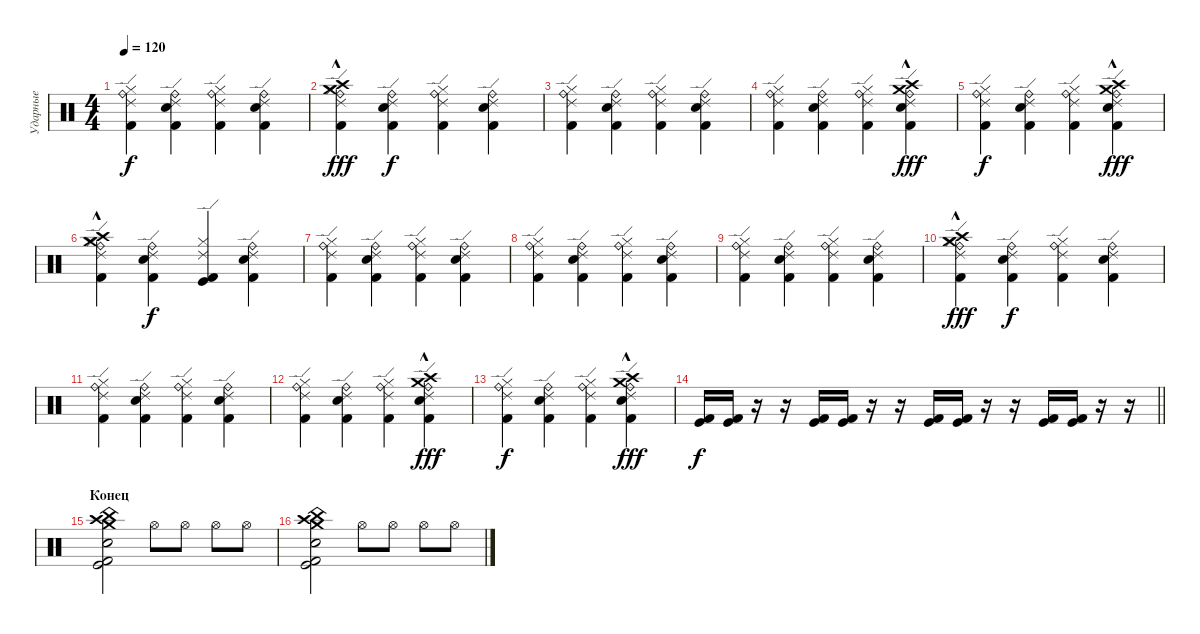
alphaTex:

\track ("Ударные" "Ударные") {instrument percussion}
\staff {score}
\articulation defaults
\ts (4 4)
\tempo 120
\clef neutral
\ks c
("Ride (bell)" "Ride (edge) 2" "Hi-Hat (closed)" "Kick (hit) 2").4{dy f} ("Ride (bell)" "Ride (edge) 2" "Snare (hit) 2" "Kick (hit) 2").4 ("Ride (bell)" "Ride (edge) 2" "Hi-Hat (closed)" "Kick (hit) 2").4 ("Ride (bell)" "Ride (edge) 2" "Snare (hit) 2" "Kick (hit) 2").4 |
("Ride (bell)" "Ride (edge) 2" "Crash high (hit)"{hac} "Crash medium (hit)"{hac} "Hi-Hat (closed)" "Kick (hit) 2").4{dy fff} ("Ride (bell)" "Ride (edge) 2" "Snare (hit) 2" "Kick (hit) 2").4{dy f} ("Ride (bell)" "Ride (edge) 2" "Hi-Hat (closed)" "Kick (hit) 2").4 ("Ride (bell)" "Ride (edge) 2" "Snare (hit) 2" "Kick (hit) 2").4 |
("Ride (bell)" "Ride (edge) 2" "Hi-Hat (closed)" "Kick (hit) 2").4 ("Ride (bell)" "Ride (edge) 2" "Snare (hit) 2" "Kick (hit) 2").4 ("Ride (bell)" "Ride (edge) 2" "Hi-Hat (closed)" "Kick (hit) 2").4 ("Ride (bell)" "Ride (edge) 2" "Snare (hit) 2" "Kick (hit) 2").4 |
("Ride (bell)" "Ride (edge) 2" "Hi-Hat (closed)" "Kick (hit) 2").4 ("Ride (bell)" "Ride (edge) 2" "Snare (hit) 2" "Kick (hit) 2").4 ("Ride (bell)" "Ride (edge) 2" "Hi-Hat (closed)" "Kick (hit) 2").4 ("Ride (bell)" "Ride (edge) 2" "Crash high (hit)"{hac} "Crash medium (hit)"{hac} "Snare (hit) 2" "Kick (hit) 2").4{dy fff} |
("Ride (bell)" "Ride (edge) 2" "Hi-Hat (closed)" "Kick (hit) 2").4{dy f} ("Ride (bell)" "Ride (edge) 2" "Snare (hit) 2" "Kick (hit) 2").4 ("Ride (bell)" "Ride (edge) 2" "Hi-Hat (closed)" "Kick (hit) 2").4 ("Ride (bell)" "Ride (edge) 2" "Crash high (hit)"{hac} "Crash medium (hit)"{hac} "Snare (hit) 2" "Kick (hit) 2").4{dy fff} |
("Ride (bell)" "Ride (edge) 2" "Crash high (hit)"{hac} "Crash medium (hit)"{hac} "Hi-Hat (closed)" "Kick (hit) 2").4 ("Ride (bell)" "Ride (edge) 2" "Snare (hit) 2" "Kick (hit) 2").4{dy f} ("Kick (hit)" "Ride (edge) 2" "Hi-Hat (closed)" "Kick (hit) 2").4 ("Ride (bell)" "Ride (edge) 2" "Snare (hit) 2" "Kick (hit) 2").4 |
("Ride (bell)" "Ride (edge) 2" "Hi-Hat (closed)" "Kick (hit) 2").4 ("Ride (bell)" "Ride (edge) 2" "Snare (hit) 2" "Kick (hit) 2").4 ("Ride (bell)" "Ride (edge) 2" "Hi-Hat (closed)" "Kick (hit) 2").4 ("Ride (bell)" "Ride (edge) 2" "Snare (hit) 2" "Kick (hit) 2").4 |
("Ride (bell)" "Ride (edge) 2" "Hi-Hat (closed)" "Kick (hit) 2").4 ("Ride (bell)" "Ride (edge) 2" "Snare (hit) 2" "Kick (hit) 2").4 ("Ride (bell)" "Ride (edge) 2" "Hi-Hat (closed)" "Kick (hit) 2").4 ("Ride (bell)" "Ride (edge) 2" "Snare (hit) 2" "Kick (hit) 2").4 |
("Ride (bell)" "Ride (edge) 2" "Hi-Hat (closed)" "Kick (hit) 2").4 ("Ride (bell)" "Ride (edge) 2" "Snare (hit) 2" "Kick (hit) 2").4 ("Ride (bell)" "Ride (edge) 2" "Hi-Hat (closed)" "Kick (hit) 2").4 ("Ride (bell)" "Ride (edge) 2" "Snare (hit) 2" "Kick (hit) 2").4 |
("Ride (bell)" "Ride (edge) 2" "Crash high (hit)"{hac} "Crash medium (hit)"{hac} "Hi-Hat (closed)" "Kick (hit) 2").4{dy fff} ("Ride (bell)" "Ride (edge) 2" "Snare (hit) 2" "Kick (hit) 2").4{dy f} ("Ride (bell)" "Ride (edge) 2" "Hi-Hat (closed)" "Kick (hit) 2").4 ("Ride (bell)" "Ride (edge) 2" "Snare (hit) 2" "Kick (hit) 2").4 |
("Ride (bell)" "Ride (edge) 2" "Hi-Hat (closed)" "Kick (hit) 2").4 ("Ride (bell)" "Ride (edge) 2" "Snare (hit) 2" "Kick (hit) 2").4 ("Ride (bell)" "Ride (edge) 2" "Hi-Hat (closed)" "Kick (hit) 2").4 ("Ride (bell)" "Ride (edge) 2" "Snare (hit) 2" "Kick (hit) 2").4 |
("Ride (bell)" "Ride (edge) 2" "Hi-Hat (closed)" "Kick (hit) 2").4 ("Ride (bell)" "Ride (edge) 2" "Snare (hit) 2" "Kick (hit) 2").4 ("Ride (bell)" "Ride (edge) 2" "Hi-Hat (closed)" "Kick (hit) 2").4 ("Ride (bell)" "Ride (edge) 2" "Crash high (hit)"{hac} "Crash medium (hit)"{hac} "Snare (hit) 2" "Kick (hit) 2").4{dy fff} |
("Ride (bell)" "Ride (edge) 2" "Hi-Hat (closed)" "Kick (hit) 2").4{dy f} ("Ride (bell)" "Ride (edge) 2" "Snare (hit) 2" "Kick (hit) 2").4 ("Ride (bell)" "Ride (edge) 2" "Hi-Hat (closed)" "Kick (hit) 2").4 ("Ride (bell)" "Ride (edge) 2" "Crash high (hit)"{hac} "Crash medium (hit)"{hac} "Snare (hit) 2" "Kick (hit) 2").4{dy fff} |
\barLineRight lightlight
("Kick (hit)" "Kick (hit) 2").16{dy f} ("Kick (hit)" "Kick (hit) 2").16 r.16 r.16 ("Kick (hit)" "Kick (hit) 2").16 ("Kick (hit)" "Kick (hit) 2").16 r.16 r.16 ("Kick (hit)" "Kick (hit) 2").16 ("Kick (hit)" "Kick (hit) 2").16 r.16 r.16 ("Kick (hit)" "Kick (hit) 2").16 ("Kick (hit)" "Kick (hit) 2").16 r.16 r.16 |
\section ("" "Конец")
("China (hit)" "Crash medium (hit)" "Crash high (hit)" "Snare (hit) 2" "Kick (hit)" "Kick (hit) 2").2 "Hi-Hat (open)".8 "Hi-Hat (open)".8 "Hi-Hat (open)".8 "Hi-Hat (open)".8 |
("China (hit)" "Crash medium (hit)" "Crash high (hit)" "Snare (hit) 2" "Kick (hit)" "Kick (hit) 2").2 "Hi-Hat (open)".8 "Hi-Hat (open)".8 "Hi-Hat (open)".8 "Hi-Hat (open)".8
